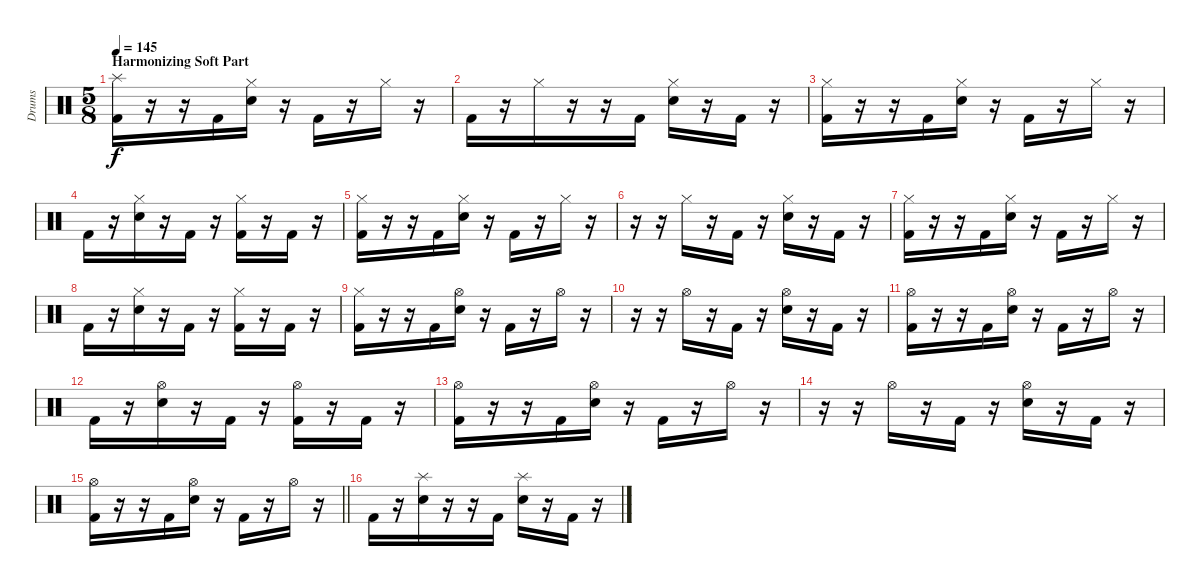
\track ("Drums" "Drums") {instrument percussion}
\staff {score}
\articulation defaults
\ts (5 8)
\section ("" "Harmonizing Soft Part")
\tempo 145
\clef neutral
\ks c
("Splash (hit)" "Kick (hit) 2").16{dy f} r.16 r.16 "Kick (hit) 2".16 ("Hi-Hat (closed)" "Snare (hit) 2").16 r.16 "Kick (hit) 2".16 r.16 "Hi-Hat (closed)".16 r.16 |
"Kick (hit) 2".16 r.16 "Hi-Hat (closed)".16 r.16 r.16 "Kick (hit) 2".16 ("Hi-Hat (closed)" "Snare (hit) 2").16 r.16 "Kick (hit) 2".16 r.16 |
("Hi-Hat (closed)" "Kick (hit) 2").16 r.16 r.16 "Kick (hit) 2".16 ("Hi-Hat (closed)" "Snare (hit) 2").16 r.16 "Kick (hit) 2".16 r.16 "Hi-Hat (closed)".16 r.16 |
"Kick (hit) 2".16 r.16 ("Hi-Hat (closed)" "Snare (hit) 2").16 r.16 "Kick (hit) 2".16 r.16 ("Hi-Hat (closed)" "Kick (hit) 2").16 r.16 "Kick (hit) 2".16 r.16 |
("Hi-Hat (closed)" "Kick (hit) 2").16 r.16 r.16 "Kick (hit) 2".16 ("Hi-Hat (closed)" "Snare (hit) 2").16 r.16 "Kick (hit) 2".16 r.16 "Hi-Hat (closed)".16 r.16 |
r.16 r.16 "Hi-Hat (closed)".16 r.16 "Kick (hit) 2".16 r.16 ("Hi-Hat (closed)" "Snare (hit) 2").16 r.16 "Kick (hit) 2".16 r.16 |
("Hi-Hat (closed)" "Kick (hit) 2").16 r.16 r.16 "Kick (hit) 2".16 ("Hi-Hat (closed)" "Snare (hit) 2").16 r.16 "Kick (hit) 2".16 r.16 "Hi-Hat (closed)".16 r.16 |
"Kick (hit) 2".16 r.16 ("Hi-Hat (closed)" "Snare (hit) 2").16 r.16 "Kick (hit) 2".16 r.16 ("Hi-Hat (closed)" "Kick (hit) 2").16 r.16 "Kick (hit) 2".16 r.16 |
("Hi-Hat (closed)" "Kick (hit) 2").16 r.16 r.16 "Kick (hit) 2".16 ("Hi-Hat (open)" "Snare (hit) 2").16 r.16 "Kick (hit) 2".16 r.16 "Hi-Hat (open)".16 r.16 |
r.16 r.16 "Hi-Hat (open)".16 r.16 "Kick (hit) 2".16 r.16 ("Hi-Hat (open)" "Snare (hit) 2").16 r.16 "Kick (hit) 2".16 r.16 |
("Hi-Hat (open)" "Kick (hit) 2").16 r.16 r.16 "Kick (hit) 2".16 ("Hi-Hat (open)" "Snare (hit) 2").16 r.16 "Kick (hit) 2".16 r.16 "Hi-Hat (open)".16 r.16 |
"Kick (hit) 2".16 r.16 ("Hi-Hat (open)" "Snare (hit) 2").16 r.16 "Kick (hit) 2".16 r.16 ("Hi-Hat (open)" "Kick (hit) 2").16 r.16 "Kick (hit) 2".16 r.16 |
("Hi-Hat (open)" "Kick (hit) 2").16 r.16 r.16 "Kick (hit) 2".16 ("Hi-Hat (open)" "Snare (hit) 2").16 r.16 "Kick (hit) 2".16 r.16 "Hi-Hat (open)".16 r.16 |
r.16 r.16 "Hi-Hat (open)".16 r.16 "Kick (hit) 2".16 r.16 ("Hi-Hat (open)" "Snare (hit) 2").16 r.16 "Kick (hit) 2".16 r.16 |
\barLineRight lightlight
("Hi-Hat (open)" "Kick (hit) 2").16 r.16 r.16 "Kick (hit) 2".16 ("Hi-Hat (open)" "Snare (hit) 2").16 r.16 "Kick (hit) 2".16 r.16 "Hi-Hat (open)".16 r.16 |
\section ("" "")
"Kick (hit) 2".16 r.16 ("Splash (hit)" "Snare (hit) 2").16 r.16 r.16 "Kick (hit) 2".16 ("Splash (hit)" "Snare (hit) 2").16 r.16 "Kick (hit) 2".16 r.16
